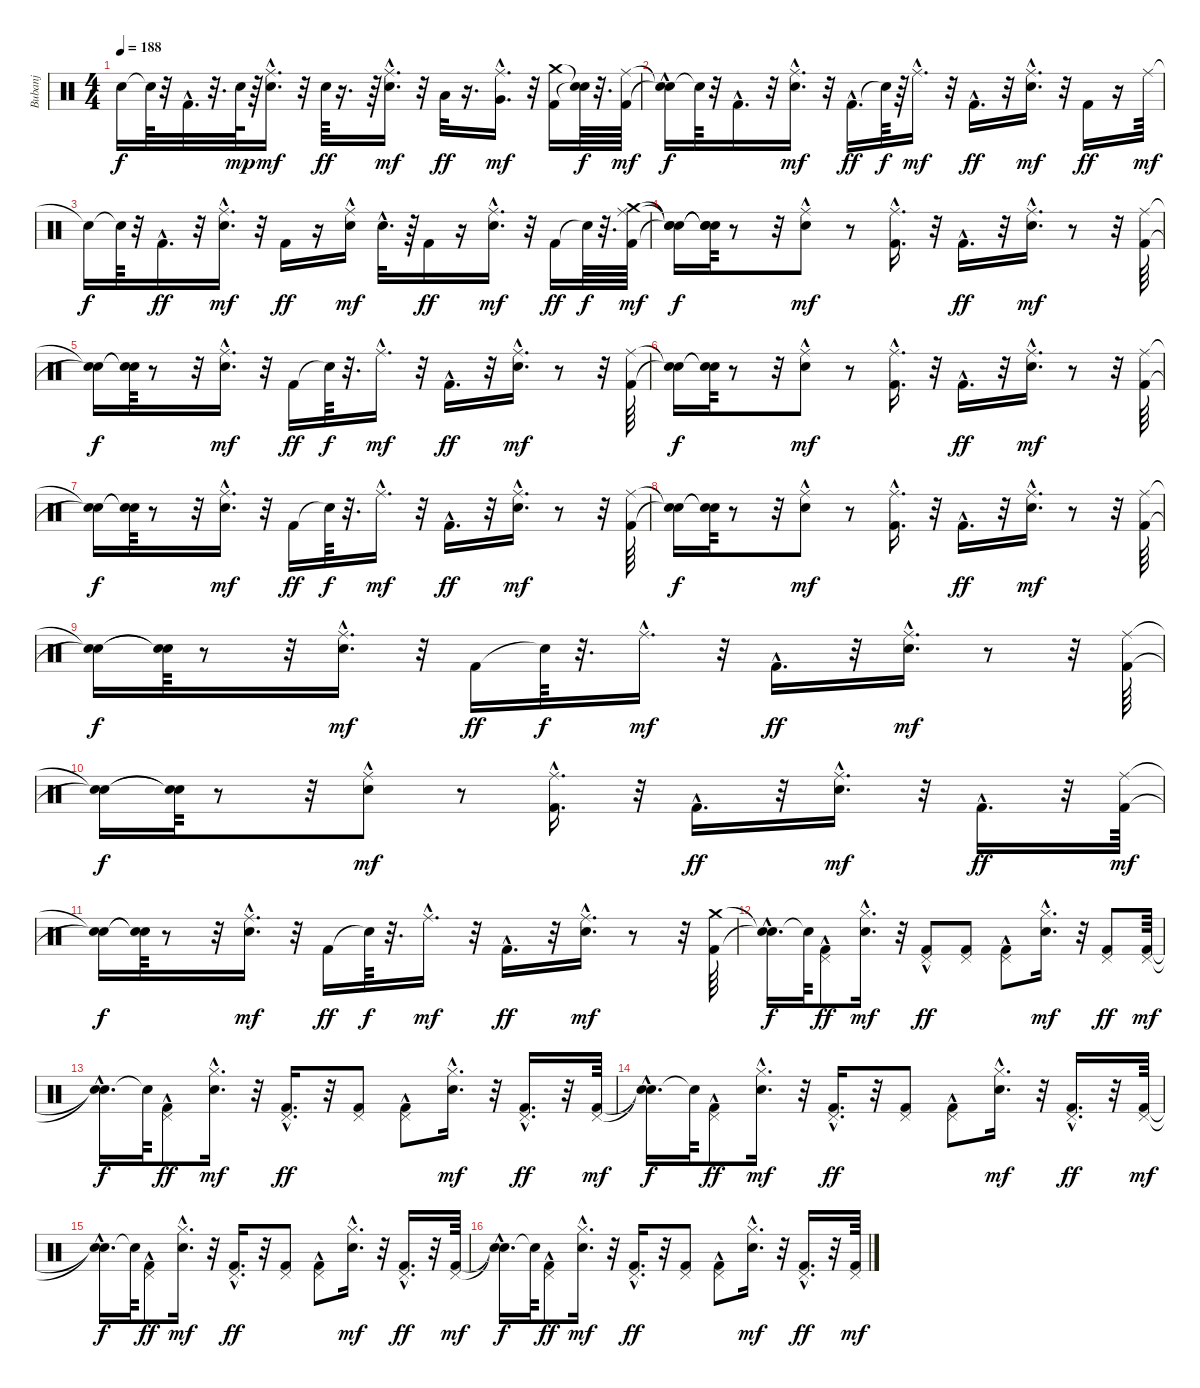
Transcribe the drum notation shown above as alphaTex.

\track ("Bubanj" "Bubanj") {instrument percussion}
\staff {score}
\articulation defaults
\ts (4 4)
\tempo 188
\clef neutral
\ks c "Snare (hit)"{t}.16{dy f} "Snare (hit)"{t}.64
r.32 "Kick (hit) 2"{hac}.32{d} r.32{d} "Electric Snare (hit)".64{dy mp} r.64 ("Electric Snare (hit)" "Ride (middle)"{hac}).16{d dy mf} r.32 "Electric Snare (hit)".64{dy ff} r.16{d} r.64 ("Electric Snare (hit)"{hac} "Ride (middle)"{hac}).16{d dy mf} r.32 "Low Tom (hit)".32{dy ff} r.16{d} ("Very Low Tom (hit)" "Ride (middle)"{hac}).16{d dy mf} r.32 ("Kick (hit) 2" "Crash medium (hit)").16 ("Snare (hit)"{t} "Snare (hit)"{t}).64{dy f} r.32{d} ("Kick (hit) 2" "Ride (middle)").64{dy mf} |
("Snare (hit)"{hac t} "Snare (hit)"{t}).16{dy f} "Snare (hit)"{t}.64 r.32 "Kick (hit) 2"{hac}.16{d} r.32 ("Electric Snare (hit)" "Ride (middle)"{hac}).16{d dy mf} r.32 "Kick (hit) 2"{hac}.16{d dy ff} "Snare (hit)"{t}.64{dy f} r.64 "Ride (middle)"{hac}.16{d dy mf} r.32 "Kick (hit) 2"{hac}.16{d dy ff} r.32 ("Electric Snare (hit)" "Ride (middle)"{hac}).16{d dy mf} r.32 "Kick (hit) 2".16{dy ff} r.16 "Ride (middle)".64{dy mf} |
"Snare (hit)"{t}.16{dy f} "Snare (hit)"{t}.64 r.32 "Kick (hit) 2"{hac}.16{d dy ff} r.32 ("Electric Snare (hit)" "Ride (middle)"{hac}).16{d dy mf} r.32 "Kick (hit) 2".16{dy ff} r.16 ("Electric Snare (hit)" "Ride (middle)"{hac}).16{dy mf} "Electric Snare (hit)"{hac}.32{d} r.64 "Kick (hit) 2".16{dy ff} r.16 ("Electric Snare (hit)" "Ride (middle)"{hac}).16{d dy mf} r.32 "Kick (hit) 2".16{dy ff} "Snare (hit)"{t}.64{dy f} r.32{d} ("Kick (hit) 2" "Ride (middle)" "Crash medium (hit)").64{dy mf} |
("Snare (hit)"{t} "Snare (hit)"{t} "Snare (hit)"{t}).16{dy f} ("Snare (hit)"{t} "Snare (hit)"{t} "Snare (hit)"{t}).64 r.8 r.32 ("Electric Snare (hit)" "Ride (middle)"{hac}).8{dy mf} r.8 ("Kick (hit) 2" "Ride (middle)"{hac}).16{d} r.32 "Kick (hit) 2"{hac}.16{d dy ff} r.32 ("Electric Snare (hit)" "Ride (middle)"{hac}).16{d dy mf} r.8 r.32 ("Kick (hit) 2" "Ride (middle)").64 |
("Snare (hit)"{t} "Snare (hit)"{t}).16{dy f} ("Snare (hit)"{t} "Snare (hit)"{t}).64 r.8 r.32 ("Electric Snare (hit)" "Ride (middle)"{hac}).16{d dy mf} r.32 "Kick (hit) 2".16{dy ff} "Snare (hit)"{t}.64{dy f} r.32{d} "Ride (middle)"{hac}.16{d dy mf} r.32 "Kick (hit) 2"{hac}.16{d dy ff} r.32 ("Electric Snare (hit)" "Ride (middle)"{hac}).16{d dy mf} r.8 r.32 ("Kick (hit) 2" "Ride (middle)").64 |
("Snare (hit)"{t} "Snare (hit)"{t}).16{dy f} ("Snare (hit)"{t} "Snare (hit)"{t}).64 r.8 r.32 ("Electric Snare (hit)" "Ride (middle)"{hac}).8{dy mf} r.8 ("Kick (hit) 2" "Ride (middle)"{hac}).16{d} r.32 "Kick (hit) 2"{hac}.16{d dy ff} r.32 ("Electric Snare (hit)" "Ride (middle)"{hac}).16{d dy mf} r.8 r.32 ("Kick (hit) 2" "Ride (middle)").64 |
("Snare (hit)"{t} "Snare (hit)"{t}).16{dy f} ("Snare (hit)"{t} "Snare (hit)"{t}).64 r.8 r.32 ("Electric Snare (hit)" "Ride (middle)"{hac}).16{d dy mf} r.32 "Kick (hit) 2".16{dy ff} "Snare (hit)"{t}.64{dy f} r.32{d} "Ride (middle)"{hac}.16{d dy mf} r.32 "Kick (hit) 2"{hac}.16{d dy ff} r.32 ("Electric Snare (hit)" "Ride (middle)"{hac}).16{d dy mf} r.8 r.32 ("Kick (hit) 2" "Ride (middle)").64 |
("Snare (hit)"{t} "Snare (hit)"{t}).16{dy f} ("Snare (hit)"{t} "Snare (hit)"{t}).64 r.8 r.32 ("Electric Snare (hit)" "Ride (middle)"{hac}).8{dy mf} r.8 ("Kick (hit) 2" "Ride (middle)"{hac}).16{d} r.32 "Kick (hit) 2"{hac}.16{d dy ff} r.32 ("Electric Snare (hit)" "Ride (middle)"{hac}).16{d dy mf} r.8 r.32 ("Kick (hit) 2" "Ride (middle)").64 |
("Snare (hit)"{t} "Snare (hit)"{t}).16{dy f} ("Snare (hit)"{t} "Snare (hit)"{t}).64 r.8 r.32 ("Electric Snare (hit)" "Ride (middle)"{hac}).16{d dy mf} r.32 "Kick (hit) 2".16{dy ff} "Snare (hit)"{t}.64{dy f} r.32{d} "Ride (middle)"{hac}.16{d dy mf} r.32 "Kick (hit) 2"{hac}.16{d dy ff} r.32 ("Electric Snare (hit)" "Ride (middle)"{hac}).16{d dy mf} r.8 r.32 ("Kick (hit) 2" "Ride (middle)").64 |
("Snare (hit)"{t} "Snare (hit)"{t}).16{dy f} ("Snare (hit)"{t} "Snare (hit)"{t}).64 r.8 r.32 ("Electric Snare (hit)" "Ride (middle)"{hac}).8{dy mf} r.8 ("Kick (hit) 2" "Ride (middle)"{hac}).16{d} r.32 "Kick (hit) 2"{hac}.16{d dy ff} r.32 ("Electric Snare (hit)" "Ride (middle)"{hac}).16{d dy mf} r.32 "Kick (hit) 2"{hac}.16{d dy ff} r.32 ("Kick (hit) 2" "Ride (middle)").64{dy mf} |
("Snare (hit)"{t} "Snare (hit)"{t}).16{dy f} ("Snare (hit)"{t} "Snare (hit)"{t}).64 r.8 r.32 ("Electric Snare (hit)" "Ride (middle)"{hac}).16{d dy mf} r.32 "Kick (hit) 2".16{dy ff} "Snare (hit)"{t}.64{dy f} r.32{d} "Ride (middle)"{hac}.16{d dy mf} r.32 "Kick (hit) 2"{hac}.16{d dy ff} r.32 ("Electric Snare (hit)" "Ride (middle)"{hac}).16{d dy mf} r.8 r.32 ("Kick (hit) 2" "Crash medium (hit)").64 |
("Snare (hit)"{hac t} "Snare (hit)"{hac t}).16{d dy f} "Snare (hit)"{t}.64 ("Pedal Hi-Hat (hit)"{hac} "Kick (hit) 2").8{dy ff} ("Electric Snare (hit)"{hac} "Hi-Hat (closed)").16{d dy mf} r.32 ("Pedal Hi-Hat (hit)"{hac} "Kick (hit) 2").8{dy ff} ("Pedal Hi-Hat (hit)" "Kick (hit) 2").8 ("Pedal Hi-Hat (hit)"{hac} "Kick (hit) 2").8 ("Electric Snare (hit)"{hac} "Hi-Hat (closed)").16{d dy mf} r.32 ("Pedal Hi-Hat (hit)" "Kick (hit) 2").8{dy ff} ("Kick (hit) 2" "Pedal Hi-Hat (hit)").64{dy mf} |
("Snare (hit)"{hac t} "Snare (hit)"{hac t}).16{d dy f} "Snare (hit)"{t}.64 ("Pedal Hi-Hat (hit)"{hac} "Kick (hit) 2").8{dy ff} ("Electric Snare (hit)"{hac} "Hi-Hat (closed)").16{d dy mf} r.32 ("Pedal Hi-Hat (hit)"{hac} "Kick (hit) 2"{hac}).16{d dy ff} r.32 ("Pedal Hi-Hat (hit)" "Kick (hit) 2").8 ("Pedal Hi-Hat (hit)"{hac} "Kick (hit) 2").8 ("Electric Snare (hit)"{hac} "Hi-Hat (closed)").16{d dy mf} r.32 ("Pedal Hi-Hat (hit)" "Kick (hit) 2"{hac}).16{d dy ff} r.32 ("Kick (hit) 2" "Pedal Hi-Hat (hit)").64{dy mf} |
("Snare (hit)"{hac t} "Snare (hit)"{hac t}).16{d dy f} "Snare (hit)"{t}.64 ("Pedal Hi-Hat (hit)"{hac} "Kick (hit) 2").8{dy ff} ("Electric Snare (hit)"{hac} "Hi-Hat (closed)").16{d dy mf} r.32 ("Pedal Hi-Hat (hit)"{hac} "Kick (hit) 2"{hac}).16{d dy ff} r.32 ("Pedal Hi-Hat (hit)" "Kick (hit) 2").8 ("Pedal Hi-Hat (hit)"{hac} "Kick (hit) 2").8 ("Electric Snare (hit)"{hac} "Hi-Hat (closed)").16{d dy mf} r.32 ("Pedal Hi-Hat (hit)" "Kick (hit) 2"{hac}).16{d dy ff} r.32 ("Kick (hit) 2" "Pedal Hi-Hat (hit)").64{dy mf} |
("Snare (hit)"{hac t} "Snare (hit)"{hac t}).16{d dy f} "Snare (hit)"{t}.64 ("Pedal Hi-Hat (hit)"{hac} "Kick (hit) 2").8{dy ff} ("Electric Snare (hit)"{hac} "Hi-Hat (closed)").16{d dy mf} r.32 ("Pedal Hi-Hat (hit)"{hac} "Kick (hit) 2"{hac}).16{d dy ff} r.32 ("Pedal Hi-Hat (hit)" "Kick (hit) 2").8 ("Pedal Hi-Hat (hit)"{hac} "Kick (hit) 2").8 ("Electric Snare (hit)"{hac} "Hi-Hat (closed)").16{d dy mf} r.32 ("Pedal Hi-Hat (hit)" "Kick (hit) 2"{hac}).16{d dy ff} r.32 ("Kick (hit) 2" "Pedal Hi-Hat (hit)").64{dy mf} |
("Snare (hit)"{hac t} "Snare (hit)"{hac t}).16{d dy f} "Snare (hit)"{t}.64 ("Pedal Hi-Hat (hit)"{hac} "Kick (hit) 2").8{dy ff} ("Electric Snare (hit)"{hac} "Hi-Hat (closed)").16{d dy mf} r.32 ("Pedal Hi-Hat (hit)"{hac} "Kick (hit) 2"{hac}).16{d dy ff} r.32 ("Pedal Hi-Hat (hit)" "Kick (hit) 2").8 ("Pedal Hi-Hat (hit)"{hac} "Kick (hit) 2").8 ("Electric Snare (hit)"{hac} "Hi-Hat (closed)").16{d dy mf} r.32 ("Pedal Hi-Hat (hit)" "Kick (hit) 2"{hac}).16{d dy ff} r.32 ("Kick (hit) 2" "Pedal Hi-Hat (hit)").64{dy mf}
